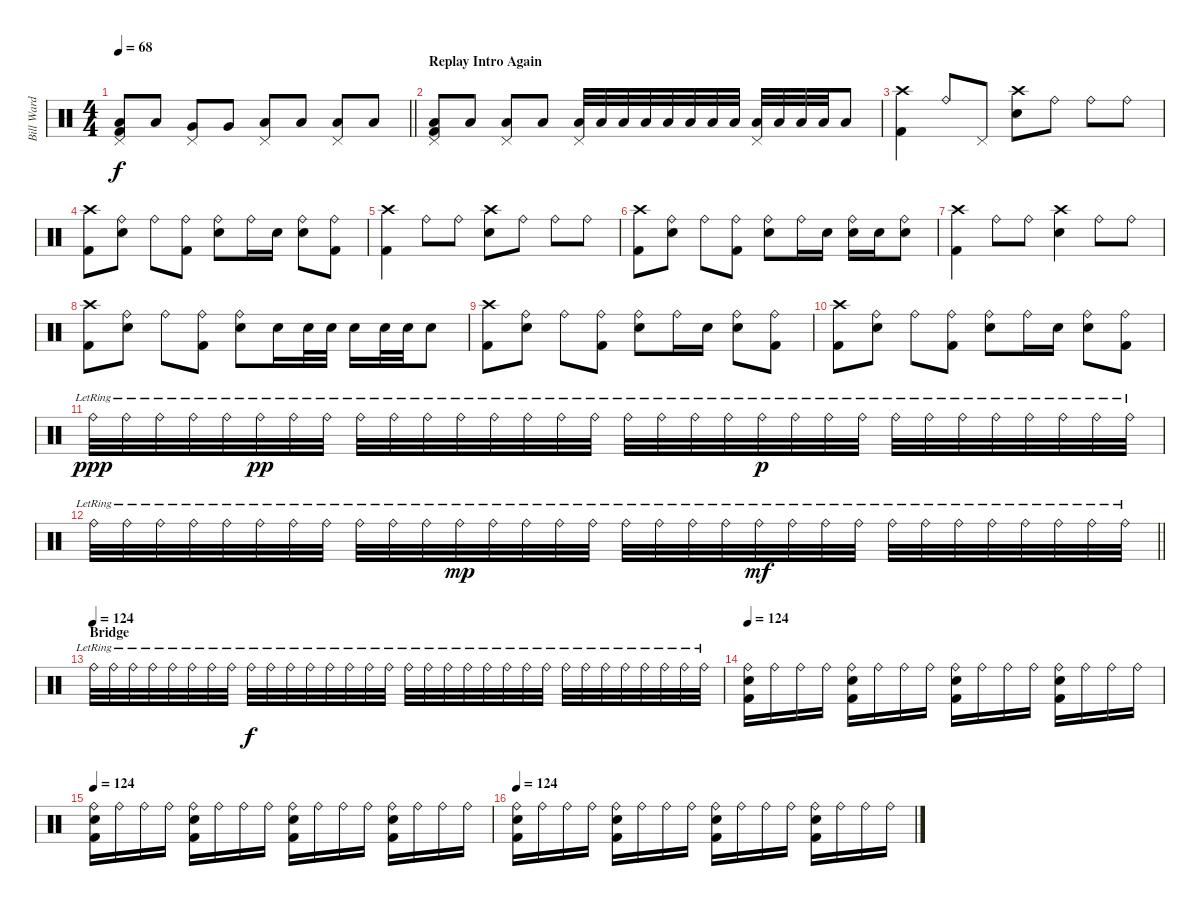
\track ("Bill Ward" "Bill Ward") {instrument percussion}
\staff {score}
\articulation defaults
\ts (4 4)
\tempo 68
\clef neutral
\barLineRight lightlight
\ks c
("Pedal Hi-Hat (hit)" "Low Floor Tom (hit)" "Kick (hit) 2").8{dy f} "Low Floor Tom (hit)".8 ("Pedal Hi-Hat (hit)" "Very Low Tom (hit)").8 "Very Low Tom (hit)".8 ("Pedal Hi-Hat (hit)" "Low Floor Tom (hit)").8 "Low Floor Tom (hit)".8 ("Pedal Hi-Hat (hit)" "Low Floor Tom (hit)").8 "Low Floor Tom (hit)".8 |
\section ("" "Replay Intro Again")
("Pedal Hi-Hat (hit)" "Low Floor Tom (hit)" "Kick (hit) 2").8 "Low Floor Tom (hit)".8 ("Pedal Hi-Hat (hit)" "Low Floor Tom (hit)").8 "Low Floor Tom (hit)".8 ("Pedal Hi-Hat (hit)" "Low Floor Tom (hit)").32 "Low Floor Tom (hit)".32 "Low Floor Tom (hit)".32 "Low Floor Tom (hit)".32 "Low Floor Tom (hit)".32 "Low Floor Tom (hit)".32 "Low Floor Tom (hit)".32 "Low Floor Tom (hit)".32 ("Pedal Hi-Hat (hit)" "Low Floor Tom (hit)").32 "Low Floor Tom (hit)".32 "Low Floor Tom (hit)".32 "Low Floor Tom (hit)".32 "Low Floor Tom (hit)".8 |
("Crash high (hit)" "Kick (hit) 2").4 "Ride (bell)".8 "Pedal Hi-Hat (hit)".8 ("Crash high (hit)" "Snare (hit) 2").8 "Ride (bell)".8 "Ride (bell)".8 "Ride (bell)".8 |
("Crash high (hit)" "Kick (hit) 2").8 ("Ride (bell)" "Snare (hit) 2").8 "Ride (bell)".8 ("Ride (bell)" "Kick (hit) 2").8 ("Ride (bell)" "Snare (hit) 2").8 "Ride (bell)".16 "Snare (hit) 2".16 ("Ride (bell)" "Snare (hit) 2").8 ("Ride (bell)" "Kick (hit) 2").8 |
("Crash high (hit)" "Kick (hit) 2").4 "Ride (bell)".8 "Ride (bell)".8 ("Crash high (hit)" "Snare (hit) 2").8 "Ride (bell)".8 "Ride (bell)".8 "Ride (bell)".8 |
("Crash high (hit)" "Kick (hit) 2").8 ("Ride (bell)" "Snare (hit) 2").8 "Ride (bell)".8 ("Ride (bell)" "Kick (hit) 2").8 ("Ride (bell)" "Snare (hit) 2").8 "Ride (bell)".16 "Snare (hit) 2".16 ("Ride (bell)" "Snare (hit) 2").16 "Snare (hit) 2".16 ("Ride (bell)" "Snare (hit) 2").8 |
("Crash high (hit)" "Kick (hit) 2").4 "Ride (bell)".8 "Ride (bell)".8 ("Crash high (hit)" "Snare (hit) 2").4 "Ride (bell)".8 "Ride (bell)".8 |
("Crash high (hit)" "Kick (hit) 2").8 ("Ride (bell)" "Snare (hit) 2").8 "Ride (bell)".8 ("Ride (bell)" "Kick (hit) 2").8 ("Ride (bell)" "Snare (hit) 2").8 "Snare (hit) 2".16 "Snare (hit) 2".32 "Snare (hit) 2".32 "Snare (hit) 2".16 "Snare (hit) 2".32 "Snare (hit) 2".32 "Snare (hit) 2".8 |
("Crash high (hit)" "Kick (hit) 2").8 ("Ride (bell)" "Snare (hit) 2").8 "Ride (bell)".8 ("Ride (bell)" "Kick (hit) 2").8 ("Ride (bell)" "Snare (hit) 2").8 "Ride (bell)".16 "Snare (hit) 2".16 ("Ride (bell)" "Snare (hit) 2").8 ("Ride (bell)" "Kick (hit) 2").8 |
("Crash high (hit)" "Kick (hit) 2").8 ("Ride (bell)" "Snare (hit) 2").8 "Ride (bell)".8 ("Ride (bell)" "Kick (hit) 2").8 ("Ride (bell)" "Snare (hit) 2").8 "Ride (bell)".16 "Snare (hit) 2".16 ("Ride (bell)" "Snare (hit) 2").8 ("Ride (bell)" "Kick (hit) 2").8 |
"Ride (bell)"{lr}.32{dy ppp} "Ride (bell)"{lr}.32 "Ride (bell)"{lr}.32 "Ride (bell)"{lr}.32 "Ride (bell)"{lr}.32 "Ride (bell)"{lr}.32{dy pp} "Ride (bell)"{lr}.32 "Ride (bell)"{lr}.32 "Ride (bell)"{lr}.32 "Ride (bell)"{lr}.32 "Ride (bell)"{lr}.32 "Ride (bell)"{lr}.32 "Ride (bell)"{lr}.32 "Ride (bell)"{lr}.32 "Ride (bell)"{lr}.32 "Ride (bell)"{lr}.32 "Ride (bell)"{lr}.32 "Ride (bell)"{lr}.32 "Ride (bell)"{lr}.32 "Ride (bell)"{lr}.32 "Ride (bell)"{lr}.32{dy p} "Ride (bell)"{lr}.32 "Ride (bell)"{lr}.32 "Ride (bell)"{lr}.32 "Ride (bell)"{lr}.32 "Ride (bell)"{lr}.32 "Ride (bell)"{lr}.32 "Ride (bell)"{lr}.32 "Ride (bell)"{lr}.32 "Ride (bell)"{lr}.32 "Ride (bell)"{lr}.32 "Ride (bell)"{lr}.32 |
\barLineRight lightlight "Ride (bell)"{lr}.32 "Ride (bell)"{lr}.32 "Ride (bell)"{lr}.32 "Ride (bell)"{lr}.32 "Ride (bell)"{lr}.32 "Ride (bell)"{lr}.32 "Ride (bell)"{lr}.32 "Ride (bell)"{lr}.32 "Ride (bell)"{lr}.32 "Ride (bell)"{lr}.32 "Ride (bell)"{lr}.32 "Ride (bell)"{lr}.32{dy mp} "Ride (bell)"{lr}.32 "Ride (bell)"{lr}.32 "Ride (bell)"{lr}.32 "Ride (bell)"{lr}.32 "Ride (bell)"{lr}.32 "Ride (bell)"{lr}.32 "Ride (bell)"{lr}.32 "Ride (bell)"{lr}.32 "Ride (bell)"{lr}.32{dy mf} "Ride (bell)"{lr}.32 "Ride (bell)"{lr}.32 "Ride (bell)"{lr}.32 "Ride (bell)"{lr}.32 "Ride (bell)"{lr}.32 "Ride (bell)"{lr}.32 "Ride (bell)"{lr}.32 "Ride (bell)"{lr}.32 "Ride (bell)"{lr}.32 "Ride (bell)"{lr}.32 "Ride (bell)"{lr}.32
|
\section ("" "Bridge")
\tempo (124)
"Ride (bell)"{lr}.32 "Ride (bell)"{lr}.32 "Ride (bell)"{lr}.32 "Ride (bell)"{lr}.32 "Ride (bell)"{lr}.32 "Ride (bell)"{lr}.32 "Ride (bell)"{lr}.32 "Ride (bell)"{lr}.32 "Ride (bell)"{lr}.32{dy f} "Ride (bell)"{lr}.32 "Ride (bell)"{lr}.32 "Ride (bell)"{lr}.32 "Ride (bell)"{lr}.32 "Ride (bell)"{lr}.32 "Ride (bell)"{lr}.32 "Ride (bell)"{lr}.32 "Ride (bell)"{lr}.32 "Ride (bell)"{lr}.32 "Ride (bell)"{lr}.32 "Ride (bell)"{lr}.32 "Ride (bell)"{lr}.32 "Ride (bell)"{lr}.32 "Ride (bell)"{lr}.32 "Ride (bell)"{lr}.32 "Ride (bell)"{lr}.32 "Ride (bell)"{lr}.32 "Ride (bell)"{lr}.32 "Ride (bell)"{lr}.32 "Ride (bell)"{lr}.32 "Ride (bell)"{lr}.32 "Ride (bell)"{lr}.32 "Ride (bell)"{lr}.32 |
\tempo 124
("Ride (bell)" "Snare (hit) 2" "Kick (hit) 2").16 "Ride (bell)".16 "Ride (bell)".16 "Ride (bell)".16 ("Ride (bell)" "Snare (hit) 2" "Kick (hit) 2").16 "Ride (bell)".16 "Ride (bell)".16 "Ride (bell)".16 ("Ride (bell)" "Snare (hit) 2" "Kick (hit) 2").16 "Ride (bell)".16 "Ride (bell)".16 "Ride (bell)".16 ("Ride (bell)" "Snare (hit) 2" "Kick (hit) 2").16 "Ride (bell)".16 "Ride (bell)".16 "Ride (bell)".16 |
\tempo 124
("Ride (bell)" "Snare (hit) 2" "Kick (hit) 2").16 "Ride (bell)".16 "Ride (bell)".16 "Ride (bell)".16 ("Ride (bell)" "Snare (hit) 2" "Kick (hit) 2").16 "Ride (bell)".16 "Ride (bell)".16 "Ride (bell)".16 ("Ride (bell)" "Snare (hit) 2" "Kick (hit) 2").16 "Ride (bell)".16 "Ride (bell)".16 "Ride (bell)".16 ("Ride (bell)" "Snare (hit) 2" "Kick (hit) 2").16 "Ride (bell)".16 "Ride (bell)".16 "Ride (bell)".16 |
\tempo 124
("Ride (bell)" "Snare (hit) 2" "Kick (hit) 2").16 "Ride (bell)".16 "Ride (bell)".16 "Ride (bell)".16 ("Ride (bell)" "Snare (hit) 2" "Kick (hit) 2").16 "Ride (bell)".16 "Ride (bell)".16 "Ride (bell)".16 ("Ride (bell)" "Snare (hit) 2" "Kick (hit) 2").16 "Ride (bell)".16 "Ride (bell)".16 "Ride (bell)".16 ("Ride (bell)" "Snare (hit) 2" "Kick (hit) 2").16 "Ride (bell)".16 "Ride (bell)".16 "Ride (bell)".16
